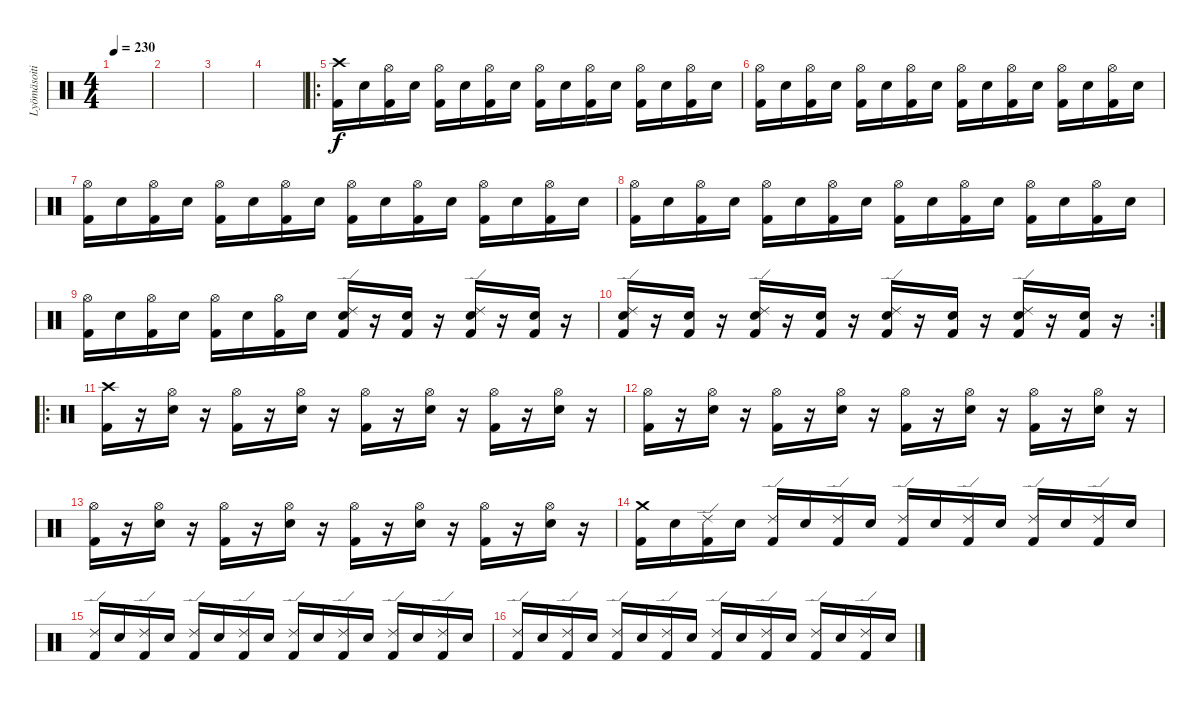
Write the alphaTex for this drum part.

\track ("Lyömäsoitin" "Lyömäsoiti") {instrument percussion}
\staff {score}
\articulation defaults
\ts (4 4)
\tempo 230
\clef neutral
\ks c
|
|
|
|
\ro
("Crash high (hit)" "Kick (hit) 2").16 "Snare (hit) 2".16 ("Hi-Hat (open)" "Kick (hit) 2").16 "Snare (hit) 2".16 ("Hi-Hat (open)" "Kick (hit) 2").16 "Snare (hit) 2".16 ("Hi-Hat (open)" "Kick (hit) 2").16 "Snare (hit) 2".16 ("Hi-Hat (open)" "Kick (hit) 2").16 "Snare (hit) 2".16 ("Hi-Hat (open)" "Kick (hit) 2").16 "Snare (hit) 2".16 ("Hi-Hat (open)" "Kick (hit) 2").16 "Snare (hit) 2".16 ("Hi-Hat (open)" "Kick (hit) 2").16 "Snare (hit) 2".16 |
("Hi-Hat (open)" "Kick (hit) 2").16 "Snare (hit) 2".16 ("Hi-Hat (open)" "Kick (hit) 2").16 "Snare (hit) 2".16 ("Hi-Hat (open)" "Kick (hit) 2").16 "Snare (hit) 2".16 ("Hi-Hat (open)" "Kick (hit) 2").16 "Snare (hit) 2".16 ("Hi-Hat (open)" "Kick (hit) 2").16 "Snare (hit) 2".16 ("Hi-Hat (open)" "Kick (hit) 2").16 "Snare (hit) 2".16 ("Hi-Hat (open)" "Kick (hit) 2").16 "Snare (hit) 2".16 ("Hi-Hat (open)" "Kick (hit) 2").16 "Snare (hit) 2".16 |
("Hi-Hat (open)" "Kick (hit) 2").16 "Snare (hit) 2".16 ("Hi-Hat (open)" "Kick (hit) 2").16 "Snare (hit) 2".16 ("Hi-Hat (open)" "Kick (hit) 2").16 "Snare (hit) 2".16 ("Hi-Hat (open)" "Kick (hit) 2").16 "Snare (hit) 2".16 ("Hi-Hat (open)" "Kick (hit) 2").16 "Snare (hit) 2".16 ("Hi-Hat (open)" "Kick (hit) 2").16 "Snare (hit) 2".16 ("Hi-Hat (open)" "Kick (hit) 2").16 "Snare (hit) 2".16 ("Hi-Hat (open)" "Kick (hit) 2").16 "Snare (hit) 2".16 |
("Hi-Hat (open)" "Kick (hit) 2").16 "Snare (hit) 2".16 ("Hi-Hat (open)" "Kick (hit) 2").16 "Snare (hit) 2".16 ("Hi-Hat (open)" "Kick (hit) 2").16 "Snare (hit) 2".16 ("Hi-Hat (open)" "Kick (hit) 2").16 "Snare (hit) 2".16 ("Hi-Hat (open)" "Kick (hit) 2").16 "Snare (hit) 2".16 ("Hi-Hat (open)" "Kick (hit) 2").16 "Snare (hit) 2".16 ("Hi-Hat (open)" "Kick (hit) 2").16 "Snare (hit) 2".16 ("Hi-Hat (open)" "Kick (hit) 2").16 "Snare (hit) 2".16 |
("Hi-Hat (open)" "Kick (hit) 2").16 "Snare (hit) 2".16 ("Hi-Hat (open)" "Kick (hit) 2").16 "Snare (hit) 2".16 ("Hi-Hat (open)" "Kick (hit) 2").16 "Snare (hit) 2".16 ("Hi-Hat (open)" "Kick (hit) 2").16 "Snare (hit) 2".16 ("Ride (edge) 2" "Snare (hit) 2" "Kick (hit) 2").16 r.16 ("Snare (hit) 2" "Kick (hit) 2").16 r.16 ("Ride (edge) 2" "Snare (hit) 2" "Kick (hit) 2").16 r.16 ("Snare (hit) 2" "Kick (hit) 2").16 r.16 |
\rc 2
("Ride (edge) 2" "Snare (hit) 2" "Kick (hit) 2").16 r.16 ("Snare (hit) 2" "Kick (hit) 2").16 r.16 ("Ride (edge) 2" "Snare (hit) 2" "Kick (hit) 2").16 r.16 ("Snare (hit) 2" "Kick (hit) 2").16 r.16 ("Ride (edge) 2" "Snare (hit) 2" "Kick (hit) 2").16 r.16 ("Snare (hit) 2" "Kick (hit) 2").16 r.16 ("Ride (edge) 2" "Snare (hit) 2" "Kick (hit) 2").16 r.16 ("Snare (hit) 2" "Kick (hit) 2").16 r.16 |
\ro
("Crash high (hit)" "Kick (hit) 2").16 r.16 ("Hi-Hat (open)" "Snare (hit) 2").16 r.16 ("Hi-Hat (open)" "Kick (hit) 2").16 r.16 ("Hi-Hat (open)" "Snare (hit) 2").16 r.16 ("Hi-Hat (open)" "Kick (hit) 2").16 r.16 ("Hi-Hat (open)" "Snare (hit) 2").16 r.16 ("Hi-Hat (open)" "Kick (hit) 2").16 r.16 ("Hi-Hat (open)" "Snare (hit) 2").16 r.16 |
("Hi-Hat (open)" "Kick (hit) 2").16 r.16 ("Hi-Hat (open)" "Snare (hit) 2").16 r.16 ("Hi-Hat (open)" "Kick (hit) 2").16 r.16 ("Hi-Hat (open)" "Snare (hit) 2").16 r.16 ("Hi-Hat (open)" "Kick (hit) 2").16 r.16 ("Hi-Hat (open)" "Snare (hit) 2").16 r.16 ("Hi-Hat (open)" "Kick (hit) 2").16 r.16 ("Hi-Hat (open)" "Snare (hit) 2").16 r.16 |
("Hi-Hat (open)" "Kick (hit) 2").16 r.16 ("Hi-Hat (open)" "Snare (hit) 2").16 r.16 ("Hi-Hat (open)" "Kick (hit) 2").16 r.16 ("Hi-Hat (open)" "Snare (hit) 2").16 r.16 ("Hi-Hat (open)" "Kick (hit) 2").16 r.16 ("Hi-Hat (open)" "Snare (hit) 2").16 r.16 ("Hi-Hat (open)" "Kick (hit) 2").16 r.16 ("Hi-Hat (open)" "Snare (hit) 2").16 r.16 |
("Crash medium (hit)" "Kick (hit) 2").16 "Snare (hit) 2".16 ("Ride (edge) 2" "Kick (hit) 2").16 "Snare (hit) 2".16 ("Ride (edge) 2" "Kick (hit) 2").16 "Snare (hit) 2".16 ("Ride (edge) 2" "Kick (hit) 2").16 "Snare (hit) 2".16 ("Ride (edge) 2" "Kick (hit) 2").16 "Snare (hit) 2".16 ("Ride (edge) 2" "Kick (hit) 2").16 "Snare (hit) 2".16 ("Ride (edge) 2" "Kick (hit) 2").16 "Snare (hit) 2".16 ("Ride (edge) 2" "Kick (hit) 2").16 "Snare (hit) 2".16 |
("Ride (edge) 2" "Kick (hit) 2").16 "Snare (hit) 2".16 ("Ride (edge) 2" "Kick (hit) 2").16 "Snare (hit) 2".16 ("Ride (edge) 2" "Kick (hit) 2").16 "Snare (hit) 2".16 ("Ride (edge) 2" "Kick (hit) 2").16 "Snare (hit) 2".16 ("Ride (edge) 2" "Kick (hit) 2").16 "Snare (hit) 2".16 ("Ride (edge) 2" "Kick (hit) 2").16 "Snare (hit) 2".16 ("Ride (edge) 2" "Kick (hit) 2").16 "Snare (hit) 2".16 ("Ride (edge) 2" "Kick (hit) 2").16 "Snare (hit) 2".16 |
("Ride (edge) 2" "Kick (hit) 2").16 "Snare (hit) 2".16 ("Ride (edge) 2" "Kick (hit) 2").16 "Snare (hit) 2".16 ("Ride (edge) 2" "Kick (hit) 2").16 "Snare (hit) 2".16 ("Ride (edge) 2" "Kick (hit) 2").16 "Snare (hit) 2".16 ("Ride (edge) 2" "Kick (hit) 2").16 "Snare (hit) 2".16 ("Ride (edge) 2" "Kick (hit) 2").16 "Snare (hit) 2".16 ("Ride (edge) 2" "Kick (hit) 2").16 "Snare (hit) 2".16 ("Ride (edge) 2" "Kick (hit) 2").16 "Snare (hit) 2".16
